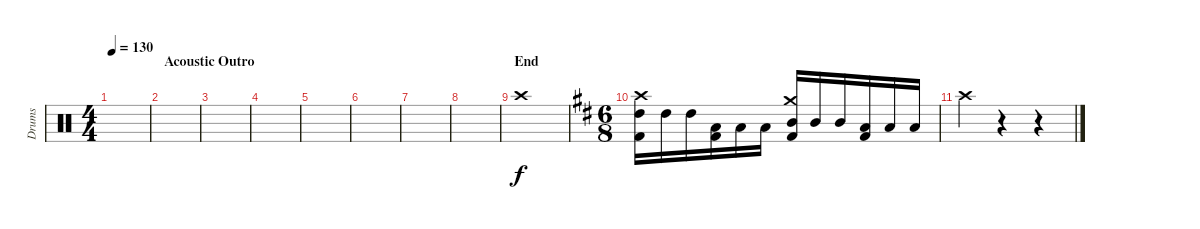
\track ("Drums" "Drums") {instrument percussion}
\staff {score}
\articulation defaults
\ts (4 4)
\tempo 130
\clef neutral
\ks c
|
\section ("" "Acoustic Outro")
|
|
|
|
|
|
|
\section ("" "End")
"Crash high (hit)".1 |
\ts (6 8)
\ks d
("Crash high (hit)" "High Tom (hit)" "Kick (hit) 2").16 "High Tom (hit)".16 "High Tom (hit)".16 ("Low Tom (hit)" "Kick (hit) 2").16 "Low Tom (hit)".16 "Low Tom (hit)".16 ("Crash medium (hit)" "Mid Tom (hit)" "Kick (hit) 2").16 "Mid Tom (hit)".16 "Mid Tom (hit)".16 ("Low Floor Tom (hit)" "Kick (hit) 2").16 "Low Floor Tom (hit)".16 "Low Floor Tom (hit)".16 |
"Crash high (hit)".4 r.4 r.4
